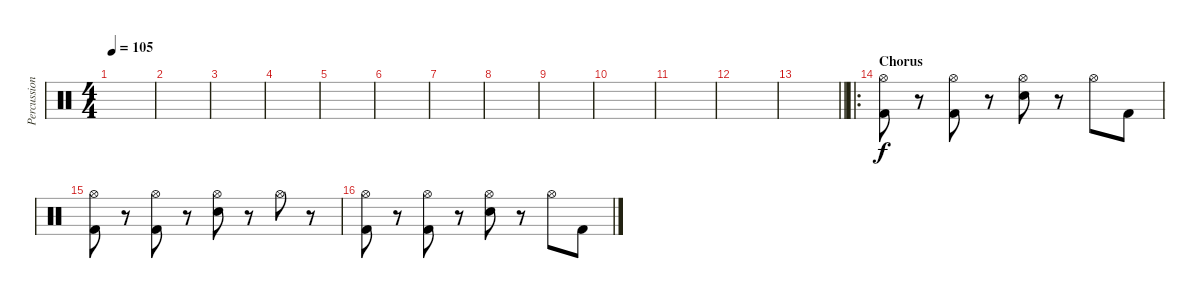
\track ("Percussion" "Percussion") {instrument percussion}
\staff {score}
\articulation defaults
\ts (4 4)
\tempo 105
\clef neutral
\ks c
|
|
|
|
|
|
|
|
|
|
|
|
\barLineRight lightlight
|
\ro
\section ("" "Chorus")
("Hi-Hat (open)" "Kick (hit) 2").8 r.8 ("Hi-Hat (open)" "Kick (hit) 2").8 r.8 ("Hi-Hat (open)" "Electric Snare (hit)").8 r.8 "Hi-Hat (open)".8 "Kick (hit) 2".8 |
("Hi-Hat (open)" "Kick (hit) 2").8 r.8 ("Hi-Hat (open)" "Kick (hit) 2").8 r.8 ("Hi-Hat (open)" "Electric Snare (hit)").8 r.8 "Hi-Hat (open)".8 r.8 |
("Hi-Hat (open)" "Kick (hit) 2").8 r.8 ("Hi-Hat (open)" "Kick (hit) 2").8 r.8 ("Hi-Hat (open)" "Electric Snare (hit)").8 r.8 "Hi-Hat (open)".8 "Kick (hit) 2".8
